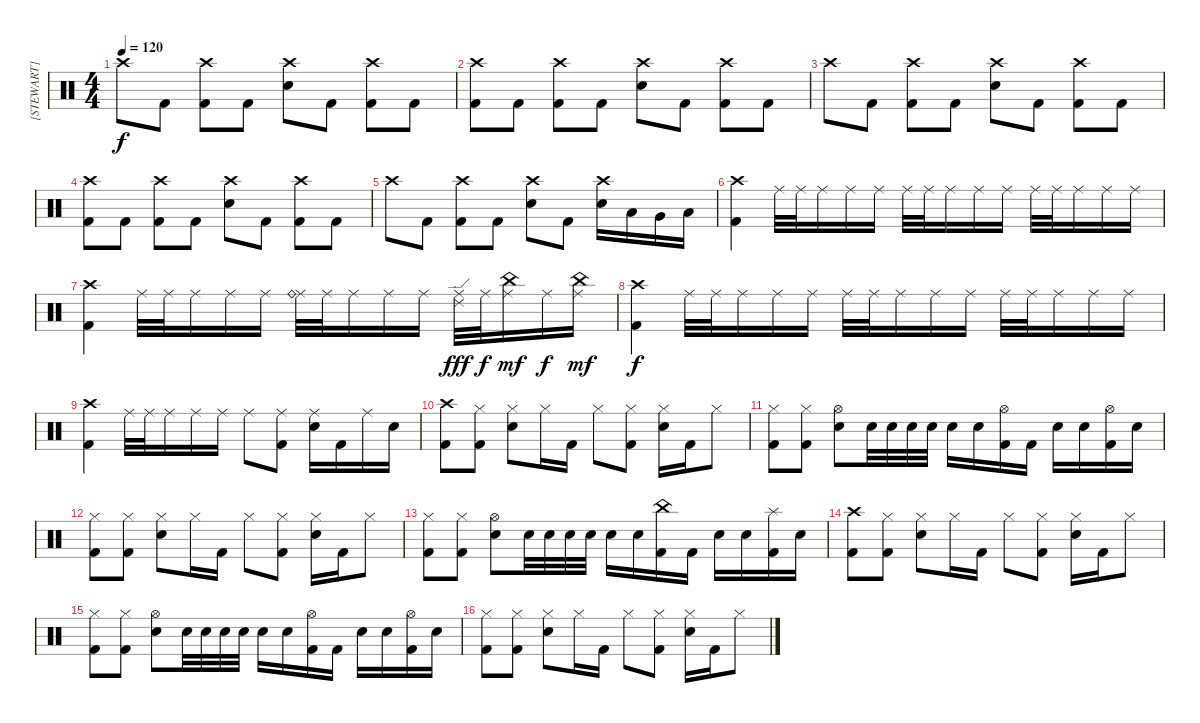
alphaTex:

\track ("[STEWART]" "[STEWART]") {instrument percussion}
\staff {score}
\articulation defaults
\ts (4 4)
\tempo 120
\clef neutral
\ks c "Crash high (hit)".8{dy f} "Kick (hit) 2".8
("Crash high (hit)" "Kick (hit) 2").8 "Kick (hit) 2".8 ("Crash high (hit)" "Electric Snare (hit)").8 "Kick (hit) 2".8 ("Crash high (hit)" "Kick (hit) 2").8 "Kick (hit) 2".8 |
("Crash high (hit)" "Kick (hit) 2").8 "Kick (hit) 2".8 ("Crash high (hit)" "Kick (hit) 2").8 "Kick (hit) 2".8 ("Crash high (hit)" "Electric Snare (hit)").8 "Kick (hit) 2".8 ("Crash high (hit)" "Kick (hit) 2").8 "Kick (hit) 2".8 |
"Crash high (hit)".8 "Kick (hit) 2".8 ("Crash high (hit)" "Kick (hit) 2").8 "Kick (hit) 2".8 ("Crash high (hit)" "Electric Snare (hit)").8 "Kick (hit) 2".8 ("Crash high (hit)" "Kick (hit) 2").8 "Kick (hit) 2".8 |
("Crash high (hit)" "Kick (hit) 2").8 "Kick (hit) 2".8 ("Crash high (hit)" "Kick (hit) 2").8 "Kick (hit) 2".8 ("Crash high (hit)" "Electric Snare (hit)").8 "Kick (hit) 2".8 ("Crash high (hit)" "Kick (hit) 2").8 "Kick (hit) 2".8 |
"Crash high (hit)".8 "Kick (hit) 2".8 ("Crash high (hit)" "Kick (hit) 2").8 "Kick (hit) 2".8 ("Crash high (hit)" "Electric Snare (hit)").8 "Kick (hit) 2".8 ("Crash high (hit)" "Electric Snare (hit)").16 "Low Tom (hit)".16 "Very Low Tom (hit)".16 "Low Floor Tom (hit)".16 |
("Crash high (hit)" "Kick (hit) 2").4 "Ride (middle)".32 "Ride (middle)".32 "Ride (middle)".16 "Ride (middle)".16 "Ride (middle)".16 "Ride (middle)".32 "Ride (middle)".32 "Ride (middle)".16 "Ride (middle)".16 "Ride (middle)".16 "Ride (middle)".32 "Ride (middle)".32 "Ride (middle)".16 "Ride (middle)".16 "Ride (middle)".16 |
("Crash high (hit)" "Kick (hit) 2").4 "Ride (middle)".32 "Ride (middle)".32 "Ride (middle)".16 "Ride (middle)".16 "Ride (middle)".16 ("Ride (middle)" "Ride (bell)").32 "Ride (middle)".32 "Ride (middle)".16 "Ride (middle)".16 "Ride (middle)".16 ("Ride (middle)" "Ride (edge) 2").32{dy fff} "Ride (middle)".32{dy f} ("Ride (middle)" "China (hit)").16{dy mf} "Ride (middle)".16{dy f} ("Ride (middle)" "China (hit)").16{dy mf} |
("Crash high (hit)" "Kick (hit) 2").4{dy f} "Ride (middle)".32 "Ride (middle)".32 "Ride (middle)".16 "Ride (middle)".16 "Ride (middle)".16 "Ride (middle)".32 "Ride (middle)".32 "Ride (middle)".16 "Ride (middle)".16 "Ride (middle)".16 "Ride (middle)".32 "Ride (middle)".32 "Ride (middle)".16 "Ride (middle)".16 "Ride (middle)".16 |
("Crash high (hit)" "Kick (hit) 2").4 "Ride (middle)".32 "Ride (middle)".32 "Ride (middle)".16 "Ride (middle)".16 "Ride (middle)".16 "Ride (middle)".8 ("Ride (middle)" "Kick (hit) 2").8 ("Ride (middle)" "Electric Snare (hit)").16 "Kick (hit) 2".16 "Ride (middle)".16 "Electric Snare (hit)".16 |
("Crash high (hit)" "Kick (hit) 2").8 ("Hi-Hat (closed)" "Kick (hit) 2").8 ("Hi-Hat (closed)" "Electric Snare (hit)").8 "Hi-Hat (closed)".16 "Kick (hit) 2".16 "Hi-Hat (closed)".8 ("Hi-Hat (closed)" "Kick (hit) 2").8 ("Hi-Hat (closed)" "Electric Snare (hit)").16 "Kick (hit) 2".16 "Hi-Hat (closed)".8 |
("Hi-Hat (closed)" "Kick (hit) 2").8 ("Hi-Hat (closed)" "Kick (hit) 2").8 ("Hi-Hat (open)" "Electric Snare (hit)").8 "Electric Snare (hit)".32 "Electric Snare (hit)".32 "Electric Snare (hit)".32 "Electric Snare (hit)".32 "Electric Snare (hit)".16 "Electric Snare (hit)".16 ("Hi-Hat (open)" "Kick (hit) 2").16 "Kick (hit) 2".16 "Electric Snare (hit)".16 "Electric Snare (hit)".16 ("Hi-Hat (open)" "Kick (hit) 2").16 "Electric Snare (hit)".16 |
("Hi-Hat (closed)" "Kick (hit) 2").8 ("Hi-Hat (closed)" "Kick (hit) 2").8 ("Hi-Hat (closed)" "Electric Snare (hit)").8 "Hi-Hat (closed)".16 "Kick (hit) 2".16 "Hi-Hat (closed)".8 ("Hi-Hat (closed)" "Kick (hit) 2").8 ("Hi-Hat (closed)" "Electric Snare (hit)").16 "Kick (hit) 2".16 "Hi-Hat (closed)".8 |
("Hi-Hat (closed)" "Kick (hit) 2").8 ("Hi-Hat (closed)" "Kick (hit) 2").8 ("Hi-Hat (open)" "Electric Snare (hit)").8 "Electric Snare (hit)".32 "Electric Snare (hit)".32 "Electric Snare (hit)".32 "Electric Snare (hit)".32 "Electric Snare (hit)".16 "Electric Snare (hit)".16 ("China (hit)" "Kick (hit) 2").16 "Kick (hit) 2".16 "Electric Snare (hit)".16 "Electric Snare (hit)".16 ("Splash (hit)" "Kick (hit) 2").16 "Electric Snare (hit)".16 |
("Crash high (hit)" "Kick (hit) 2").8 ("Hi-Hat (closed)" "Kick (hit) 2").8 ("Hi-Hat (closed)" "Electric Snare (hit)").8 "Hi-Hat (closed)".16 "Kick (hit) 2".16 "Hi-Hat (closed)".8 ("Hi-Hat (closed)" "Kick (hit) 2").8 ("Hi-Hat (closed)" "Electric Snare (hit)").16 "Kick (hit) 2".16 "Hi-Hat (closed)".8 |
("Hi-Hat (closed)" "Kick (hit) 2").8 ("Hi-Hat (closed)" "Kick (hit) 2").8 ("Hi-Hat (open)" "Electric Snare (hit)").8 "Electric Snare (hit)".32 "Electric Snare (hit)".32 "Electric Snare (hit)".32 "Electric Snare (hit)".32 "Electric Snare (hit)".16 "Electric Snare (hit)".16 ("Hi-Hat (open)" "Kick (hit) 2").16 "Kick (hit) 2".16 "Electric Snare (hit)".16 "Electric Snare (hit)".16 ("Hi-Hat (open)" "Kick (hit) 2").16 "Electric Snare (hit)".16 |
("Hi-Hat (closed)" "Kick (hit) 2").8 ("Hi-Hat (closed)" "Kick (hit) 2").8 ("Hi-Hat (closed)" "Electric Snare (hit)").8 "Hi-Hat (closed)".16 "Kick (hit) 2".16 "Hi-Hat (closed)".8 ("Hi-Hat (closed)" "Kick (hit) 2").8 ("Hi-Hat (closed)" "Electric Snare (hit)").16 "Kick (hit) 2".16 "Hi-Hat (closed)".8
